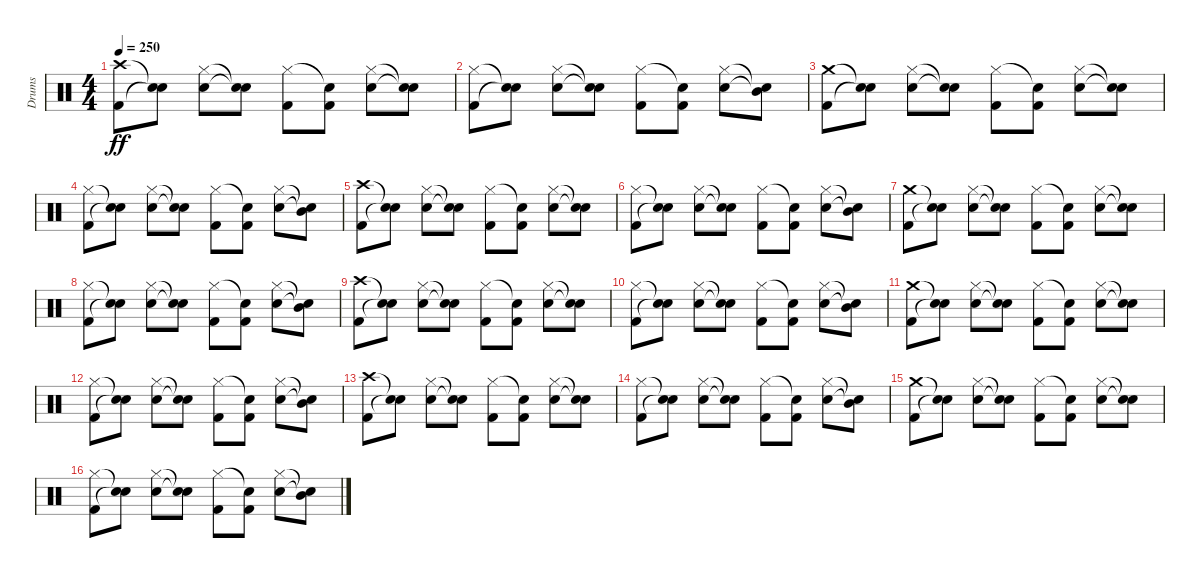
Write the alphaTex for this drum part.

\track ("Drums" "Drums") {instrument percussion}
\staff {score}
\articulation defaults
\ts (4 4)
\tempo 250
\clef neutral
\ks c
("Crash high (hit)" "Kick (hit) 2").8{dy ff} ("Snare (hit)"{t} "Snare (hit)"{t}).8 ("Hi-Hat (closed)" "Electric Snare (hit)").8 ("Snare (hit)"{t} "Snare (hit)"{t}).8 ("Hi-Hat (closed)" "Kick (hit) 2").8 ("Snare (hit)"{t} "Kick (hit) 2").8 ("Hi-Hat (closed)" "Electric Snare (hit)").8 ("Snare (hit)"{t} "Snare (hit)"{t}).8 |
("Hi-Hat (closed)" "Kick (hit) 2").8 ("Snare (hit)"{t} "Snare (hit)"{t}).8 ("Hi-Hat (closed)" "Electric Snare (hit)").8 ("Snare (hit)"{t} "Snare (hit)"{t}).8 ("Hi-Hat (closed)" "Kick (hit) 2").8 ("Snare (hit)"{t} "Kick (hit) 2").8 ("Hi-Hat (closed)" "Electric Snare (hit)").8 ("Snare (hit)"{t} "Mid Tom (hit)"{t}).8 |
("Crash medium (hit)" "Kick (hit) 2").8 ("Snare (hit)"{t} "Snare (hit)"{t}).8 ("Hi-Hat (closed)" "Electric Snare (hit)").8 ("Snare (hit)"{t} "Snare (hit)"{t}).8 ("Hi-Hat (closed)" "Kick (hit) 2").8 ("Snare (hit)"{t} "Kick (hit) 2").8 ("Hi-Hat (closed)" "Electric Snare (hit)").8 ("Snare (hit)"{t} "Snare (hit)"{t}).8 |
("Hi-Hat (closed)" "Kick (hit) 2").8 ("Snare (hit)"{t} "Snare (hit)"{t}).8 ("Hi-Hat (closed)" "Electric Snare (hit)").8 ("Snare (hit)"{t} "Snare (hit)"{t}).8 ("Hi-Hat (closed)" "Kick (hit) 2").8 ("Snare (hit)"{t} "Kick (hit) 2").8 ("Hi-Hat (closed)" "Electric Snare (hit)").8 ("Snare (hit)"{t} "Mid Tom (hit)"{t}).8 |
("Crash high (hit)" "Kick (hit) 2").8 ("Snare (hit)"{t} "Snare (hit)"{t}).8 ("Hi-Hat (closed)" "Electric Snare (hit)").8 ("Snare (hit)"{t} "Snare (hit)"{t}).8 ("Hi-Hat (closed)" "Kick (hit) 2").8 ("Snare (hit)"{t} "Kick (hit) 2").8 ("Hi-Hat (closed)" "Electric Snare (hit)").8 ("Snare (hit)"{t} "Snare (hit)"{t}).8 |
("Hi-Hat (closed)" "Kick (hit) 2").8 ("Snare (hit)"{t} "Snare (hit)"{t}).8 ("Hi-Hat (closed)" "Electric Snare (hit)").8 ("Snare (hit)"{t} "Snare (hit)"{t}).8 ("Hi-Hat (closed)" "Kick (hit) 2").8 ("Snare (hit)"{t} "Kick (hit) 2").8 ("Hi-Hat (closed)" "Electric Snare (hit)").8 ("Snare (hit)"{t} "Mid Tom (hit)"{t}).8 |
("Crash medium (hit)" "Kick (hit) 2").8 ("Snare (hit)"{t} "Snare (hit)"{t}).8 ("Hi-Hat (closed)" "Electric Snare (hit)").8 ("Snare (hit)"{t} "Snare (hit)"{t}).8 ("Hi-Hat (closed)" "Kick (hit) 2").8 ("Snare (hit)"{t} "Kick (hit) 2").8 ("Hi-Hat (closed)" "Electric Snare (hit)").8 ("Snare (hit)"{t} "Snare (hit)"{t}).8 |
("Hi-Hat (closed)" "Kick (hit) 2").8 ("Snare (hit)"{t} "Snare (hit)"{t}).8 ("Hi-Hat (closed)" "Electric Snare (hit)").8 ("Snare (hit)"{t} "Snare (hit)"{t}).8 ("Hi-Hat (closed)" "Kick (hit) 2").8 ("Snare (hit)"{t} "Kick (hit) 2").8 ("Hi-Hat (closed)" "Electric Snare (hit)").8 ("Snare (hit)"{t} "Mid Tom (hit)"{t}).8 |
("Crash high (hit)" "Kick (hit) 2").8 ("Snare (hit)"{t} "Snare (hit)"{t}).8 ("Hi-Hat (closed)" "Electric Snare (hit)").8 ("Snare (hit)"{t} "Snare (hit)"{t}).8 ("Hi-Hat (closed)" "Kick (hit) 2").8 ("Snare (hit)"{t} "Kick (hit) 2").8 ("Hi-Hat (closed)" "Electric Snare (hit)").8 ("Snare (hit)"{t} "Snare (hit)"{t}).8 |
("Hi-Hat (closed)" "Kick (hit) 2").8 ("Snare (hit)"{t} "Snare (hit)"{t}).8 ("Hi-Hat (closed)" "Electric Snare (hit)").8 ("Snare (hit)"{t} "Snare (hit)"{t}).8 ("Hi-Hat (closed)" "Kick (hit) 2").8 ("Snare (hit)"{t} "Kick (hit) 2").8 ("Hi-Hat (closed)" "Electric Snare (hit)").8 ("Snare (hit)"{t} "Mid Tom (hit)"{t}).8 |
("Crash medium (hit)" "Kick (hit) 2").8 ("Snare (hit)"{t} "Snare (hit)"{t}).8 ("Hi-Hat (closed)" "Electric Snare (hit)").8 ("Snare (hit)"{t} "Snare (hit)"{t}).8 ("Hi-Hat (closed)" "Kick (hit) 2").8 ("Snare (hit)"{t} "Kick (hit) 2").8 ("Hi-Hat (closed)" "Electric Snare (hit)").8 ("Snare (hit)"{t} "Snare (hit)"{t}).8 |
("Hi-Hat (closed)" "Kick (hit) 2").8 ("Snare (hit)"{t} "Snare (hit)"{t}).8 ("Hi-Hat (closed)" "Electric Snare (hit)").8 ("Snare (hit)"{t} "Snare (hit)"{t}).8 ("Hi-Hat (closed)" "Kick (hit) 2").8 ("Snare (hit)"{t} "Kick (hit) 2").8 ("Hi-Hat (closed)" "Electric Snare (hit)").8 ("Snare (hit)"{t} "Mid Tom (hit)"{t}).8 |
("Crash high (hit)" "Kick (hit) 2").8 ("Snare (hit)"{t} "Snare (hit)"{t}).8 ("Hi-Hat (closed)" "Electric Snare (hit)").8 ("Snare (hit)"{t} "Snare (hit)"{t}).8 ("Hi-Hat (closed)" "Kick (hit) 2").8 ("Snare (hit)"{t} "Kick (hit) 2").8 ("Hi-Hat (closed)" "Electric Snare (hit)").8 ("Snare (hit)"{t} "Snare (hit)"{t}).8 |
("Hi-Hat (closed)" "Kick (hit) 2").8 ("Snare (hit)"{t} "Snare (hit)"{t}).8 ("Hi-Hat (closed)" "Electric Snare (hit)").8 ("Snare (hit)"{t} "Snare (hit)"{t}).8 ("Hi-Hat (closed)" "Kick (hit) 2").8 ("Snare (hit)"{t} "Kick (hit) 2").8 ("Hi-Hat (closed)" "Electric Snare (hit)").8 ("Snare (hit)"{t} "Mid Tom (hit)"{t}).8 |
("Crash medium (hit)" "Kick (hit) 2").8 ("Snare (hit)"{t} "Snare (hit)"{t}).8 ("Hi-Hat (closed)" "Electric Snare (hit)").8 ("Snare (hit)"{t} "Snare (hit)"{t}).8 ("Hi-Hat (closed)" "Kick (hit) 2").8 ("Snare (hit)"{t} "Kick (hit) 2").8 ("Hi-Hat (closed)" "Electric Snare (hit)").8 ("Snare (hit)"{t} "Snare (hit)"{t}).8 |
("Hi-Hat (closed)" "Kick (hit) 2").8 ("Snare (hit)"{t} "Snare (hit)"{t}).8 ("Hi-Hat (closed)" "Electric Snare (hit)").8 ("Snare (hit)"{t} "Snare (hit)"{t}).8 ("Hi-Hat (closed)" "Kick (hit) 2").8 ("Snare (hit)"{t} "Kick (hit) 2").8 ("Hi-Hat (closed)" "Electric Snare (hit)").8 ("Snare (hit)"{t} "Mid Tom (hit)"{t}).8
